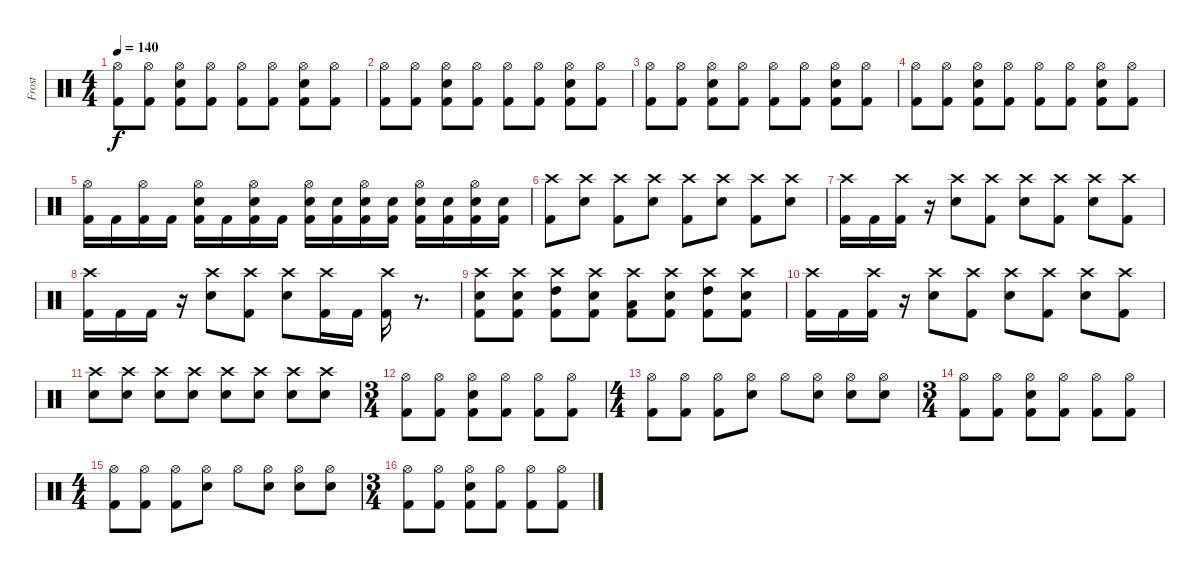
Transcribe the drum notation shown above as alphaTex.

\track ("Frost" "Frost") {instrument percussion}
\staff {score}
\articulation defaults
\ts (4 4)
\tempo 140
\clef neutral
\ks c
("Hi-Hat (open)" "Kick (hit) 2").8{dy f} ("Hi-Hat (open)" "Kick (hit) 2").8 ("Hi-Hat (open)" "Kick (hit) 2" "Snare (hit) 2").8 ("Hi-Hat (open)" "Kick (hit) 2").8 ("Hi-Hat (open)" "Kick (hit) 2").8 ("Hi-Hat (open)" "Kick (hit) 2").8 ("Hi-Hat (open)" "Kick (hit) 2" "Snare (hit) 2").8 ("Hi-Hat (open)" "Kick (hit) 2").8 |
("Hi-Hat (open)" "Kick (hit) 2").8 ("Hi-Hat (open)" "Kick (hit) 2").8 ("Hi-Hat (open)" "Kick (hit) 2" "Snare (hit) 2").8 ("Hi-Hat (open)" "Kick (hit) 2").8 ("Hi-Hat (open)" "Kick (hit) 2").8 ("Hi-Hat (open)" "Kick (hit) 2").8 ("Hi-Hat (open)" "Kick (hit) 2" "Snare (hit) 2").8 ("Hi-Hat (open)" "Kick (hit) 2").8 |
("Hi-Hat (open)" "Kick (hit) 2").8 ("Hi-Hat (open)" "Kick (hit) 2").8 ("Hi-Hat (open)" "Kick (hit) 2" "Snare (hit) 2").8 ("Hi-Hat (open)" "Kick (hit) 2").8 ("Hi-Hat (open)" "Kick (hit) 2").8 ("Hi-Hat (open)" "Kick (hit) 2").8 ("Hi-Hat (open)" "Kick (hit) 2" "Snare (hit) 2").8 ("Hi-Hat (open)" "Kick (hit) 2").8 |
("Hi-Hat (open)" "Kick (hit) 2").8 ("Hi-Hat (open)" "Kick (hit) 2").8 ("Hi-Hat (open)" "Kick (hit) 2" "Snare (hit) 2").8 ("Hi-Hat (open)" "Kick (hit) 2").8 ("Hi-Hat (open)" "Kick (hit) 2").8 ("Hi-Hat (open)" "Kick (hit) 2").8 ("Hi-Hat (open)" "Kick (hit) 2" "Snare (hit) 2").8 ("Hi-Hat (open)" "Kick (hit) 2").8 |
("Hi-Hat (open)" "Kick (hit) 2").16 "Kick (hit) 2".16 ("Hi-Hat (open)" "Kick (hit) 2").16 "Kick (hit) 2".16 ("Hi-Hat (open)" "Snare (hit) 2" "Kick (hit) 2").16 "Kick (hit) 2".16 ("Hi-Hat (open)" "Snare (hit) 2" "Kick (hit) 2").16 "Kick (hit) 2".16 ("Hi-Hat (open)" "Snare (hit) 2" "Kick (hit) 2").16 ("Snare (hit) 2" "Kick (hit) 2").16 ("Hi-Hat (open)" "Snare (hit) 2" "Kick (hit) 2").16 ("Snare (hit) 2" "Kick (hit) 2").16 ("Hi-Hat (open)" "Snare (hit) 2" "Kick (hit) 2").16 ("Snare (hit) 2" "Kick (hit) 2").16 ("Hi-Hat (open)" "Snare (hit) 2" "Kick (hit) 2").16 ("Snare (hit) 2" "Kick (hit) 2").16 |
("Crash high (hit)" "Kick (hit) 2").8 ("Crash high (hit)" "Snare (hit) 2").8 ("Crash high (hit)" "Kick (hit) 2").8 ("Crash high (hit)" "Snare (hit) 2").8 ("Crash high (hit)" "Kick (hit) 2").8 ("Crash high (hit)" "Snare (hit) 2").8 ("Crash high (hit)" "Kick (hit) 2").8 ("Crash high (hit)" "Snare (hit) 2").8 |
("Crash high (hit)" "Kick (hit) 2").16 "Kick (hit) 2".16 ("Crash high (hit)" "Kick (hit) 2").16 r.16 ("Crash high (hit)" "Snare (hit) 2").8 ("Crash high (hit)" "Kick (hit) 2").8 ("Crash high (hit)" "Snare (hit) 2").8 ("Crash high (hit)" "Kick (hit) 2").8 ("Crash high (hit)" "Snare (hit) 2").8 ("Crash high (hit)" "Kick (hit) 2").8 |
("Crash high (hit)" "Kick (hit) 2").16 "Kick (hit) 2".16 "Kick (hit) 2".16 r.16 ("Crash high (hit)" "Snare (hit) 2").8 ("Crash high (hit)" "Kick (hit) 2").8 ("Crash high (hit)" "Snare (hit) 2").8 ("Crash high (hit)" "Kick (hit) 2").16 "Kick (hit) 2".16 ("Crash high (hit)" "Kick (hit) 2").16 r.8{d} |
("Crash high (hit)" "Snare (hit) 2" "Kick (hit) 2").8 ("Crash high (hit)" "Snare (hit) 2" "Kick (hit) 2").8 ("Crash high (hit)" "High Tom (hit)" "Kick (hit) 2").8 ("Crash high (hit)" "Snare (hit) 2" "Kick (hit) 2").8 ("Crash high (hit)" "Low Tom (hit)" "Kick (hit) 2").8 ("Crash high (hit)" "Snare (hit) 2" "Kick (hit) 2").8 ("Crash high (hit)" "High Tom (hit)" "Kick (hit) 2").8 ("Crash high (hit)" "Snare (hit) 2" "Kick (hit) 2").8 |
("Crash high (hit)" "Kick (hit) 2").16 "Kick (hit) 2".16 ("Crash high (hit)" "Kick (hit) 2").16 r.16 ("Crash high (hit)" "Snare (hit) 2").8 ("Crash high (hit)" "Kick (hit) 2").8 ("Crash high (hit)" "Snare (hit) 2").8 ("Crash high (hit)" "Kick (hit) 2").8 ("Crash high (hit)" "Snare (hit) 2").8 ("Crash high (hit)" "Kick (hit) 2").8 |
("Crash high (hit)" "Snare (hit) 2").8 ("Crash high (hit)" "Snare (hit) 2").8 ("Crash high (hit)" "Snare (hit) 2").8 ("Crash high (hit)" "Snare (hit) 2").8 ("Crash high (hit)" "Snare (hit) 2").8 ("Crash high (hit)" "Snare (hit) 2").8 ("Crash high (hit)" "Snare (hit) 2").8 ("Crash high (hit)" "Snare (hit) 2").8 |
\ts (3 4)
("Hi-Hat (open)" "Kick (hit) 2").8 ("Hi-Hat (open)" "Kick (hit) 2").8 ("Hi-Hat (open)" "Kick (hit) 2" "Snare (hit) 2").8 ("Hi-Hat (open)" "Kick (hit) 2").8 ("Hi-Hat (open)" "Kick (hit) 2").8 ("Hi-Hat (open)" "Kick (hit) 2").8 |
\ts (4 4)
("Hi-Hat (open)" "Kick (hit) 2").8 ("Hi-Hat (open)" "Kick (hit) 2").8 ("Hi-Hat (open)" "Kick (hit) 2").8 ("Hi-Hat (open)" "Snare (hit) 2").8 "Hi-Hat (open)".8 ("Hi-Hat (open)" "Snare (hit) 2").8 ("Hi-Hat (open)" "Snare (hit) 2").8 ("Hi-Hat (open)" "Snare (hit) 2").8 |
\ts (3 4)
("Hi-Hat (open)" "Kick (hit) 2").8 ("Hi-Hat (open)" "Kick (hit) 2").8 ("Hi-Hat (open)" "Kick (hit) 2" "Snare (hit) 2").8 ("Hi-Hat (open)" "Kick (hit) 2").8 ("Hi-Hat (open)" "Kick (hit) 2").8 ("Hi-Hat (open)" "Kick (hit) 2").8 |
\ts (4 4)
("Hi-Hat (open)" "Kick (hit) 2").8 ("Hi-Hat (open)" "Kick (hit) 2").8 ("Hi-Hat (open)" "Kick (hit) 2").8 ("Hi-Hat (open)" "Snare (hit) 2").8 "Hi-Hat (open)".8 ("Hi-Hat (open)" "Snare (hit) 2").8 ("Hi-Hat (open)" "Snare (hit) 2").8 ("Hi-Hat (open)" "Snare (hit) 2").8 |
\ts (3 4)
("Hi-Hat (open)" "Kick (hit) 2").8 ("Hi-Hat (open)" "Kick (hit) 2").8 ("Hi-Hat (open)" "Kick (hit) 2" "Snare (hit) 2").8 ("Hi-Hat (open)" "Kick (hit) 2").8 ("Hi-Hat (open)" "Kick (hit) 2").8 ("Hi-Hat (open)" "Kick (hit) 2").8
